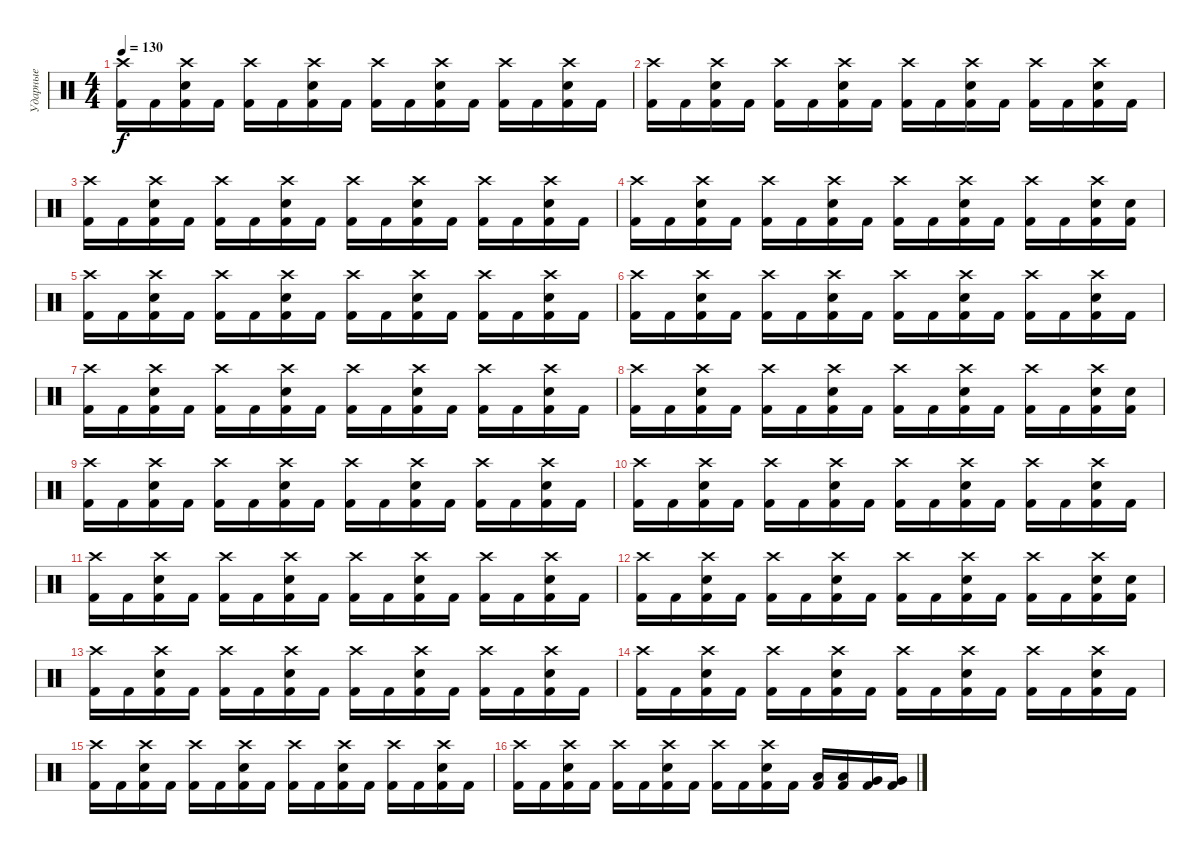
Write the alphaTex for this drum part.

\track ("Ударные" "Ударные") {instrument percussion}
\staff {score}
\articulation defaults
\ts (4 4)
\tempo 130
\clef neutral
\ks c
("Crash high (hit)" "Kick (hit) 2").16{dy f} "Kick (hit) 2".16 ("Crash high (hit)" "Electric Snare (hit)" "Kick (hit) 2").16 "Kick (hit) 2".16 ("Crash high (hit)" "Kick (hit) 2").16 "Kick (hit) 2".16 ("Crash high (hit)" "Electric Snare (hit)" "Kick (hit) 2").16 "Kick (hit) 2".16 ("Crash high (hit)" "Kick (hit) 2").16 "Kick (hit) 2".16 ("Crash high (hit)" "Electric Snare (hit)" "Kick (hit) 2").16 "Kick (hit) 2".16 ("Crash high (hit)" "Kick (hit) 2").16 "Kick (hit) 2".16 ("Crash high (hit)" "Electric Snare (hit)" "Kick (hit) 2").16 "Kick (hit) 2".16 |
("Crash high (hit)" "Kick (hit) 2").16 "Kick (hit) 2".16 ("Crash high (hit)" "Electric Snare (hit)" "Kick (hit) 2").16 "Kick (hit) 2".16 ("Crash high (hit)" "Kick (hit) 2").16 "Kick (hit) 2".16 ("Crash high (hit)" "Electric Snare (hit)" "Kick (hit) 2").16 "Kick (hit) 2".16 ("Crash high (hit)" "Kick (hit) 2").16 "Kick (hit) 2".16 ("Crash high (hit)" "Electric Snare (hit)" "Kick (hit) 2").16 "Kick (hit) 2".16 ("Crash high (hit)" "Kick (hit) 2").16 "Kick (hit) 2".16 ("Crash high (hit)" "Electric Snare (hit)" "Kick (hit) 2").16 "Kick (hit) 2".16 |
("Crash high (hit)" "Kick (hit) 2").16 "Kick (hit) 2".16 ("Crash high (hit)" "Electric Snare (hit)" "Kick (hit) 2").16 "Kick (hit) 2".16 ("Crash high (hit)" "Kick (hit) 2").16 "Kick (hit) 2".16 ("Crash high (hit)" "Electric Snare (hit)" "Kick (hit) 2").16 "Kick (hit) 2".16 ("Crash high (hit)" "Kick (hit) 2").16 "Kick (hit) 2".16 ("Crash high (hit)" "Electric Snare (hit)" "Kick (hit) 2").16 "Kick (hit) 2".16 ("Crash high (hit)" "Kick (hit) 2").16 "Kick (hit) 2".16 ("Crash high (hit)" "Electric Snare (hit)" "Kick (hit) 2").16 "Kick (hit) 2".16 |
("Crash high (hit)" "Kick (hit) 2").16 "Kick (hit) 2".16 ("Crash high (hit)" "Electric Snare (hit)" "Kick (hit) 2").16 "Kick (hit) 2".16 ("Crash high (hit)" "Kick (hit) 2").16 "Kick (hit) 2".16 ("Crash high (hit)" "Electric Snare (hit)" "Kick (hit) 2").16 "Kick (hit) 2".16 ("Crash high (hit)" "Kick (hit) 2").16 "Kick (hit) 2".16 ("Crash high (hit)" "Electric Snare (hit)" "Kick (hit) 2").16 "Kick (hit) 2".16 ("Crash high (hit)" "Kick (hit) 2").16 "Kick (hit) 2".16 ("Crash high (hit)" "Electric Snare (hit)" "Kick (hit) 2").16 ("Electric Snare (hit)" "Kick (hit) 2").16 |
("Crash high (hit)" "Kick (hit) 2").16 "Kick (hit) 2".16 ("Crash high (hit)" "Electric Snare (hit)" "Kick (hit) 2").16 "Kick (hit) 2".16 ("Crash high (hit)" "Kick (hit) 2").16 "Kick (hit) 2".16 ("Crash high (hit)" "Electric Snare (hit)" "Kick (hit) 2").16 "Kick (hit) 2".16 ("Crash high (hit)" "Kick (hit) 2").16 "Kick (hit) 2".16 ("Crash high (hit)" "Electric Snare (hit)" "Kick (hit) 2").16 "Kick (hit) 2".16 ("Crash high (hit)" "Kick (hit) 2").16 "Kick (hit) 2".16 ("Crash high (hit)" "Electric Snare (hit)" "Kick (hit) 2").16 "Kick (hit) 2".16 |
("Crash high (hit)" "Kick (hit) 2").16 "Kick (hit) 2".16 ("Crash high (hit)" "Electric Snare (hit)" "Kick (hit) 2").16 "Kick (hit) 2".16 ("Crash high (hit)" "Kick (hit) 2").16 "Kick (hit) 2".16 ("Crash high (hit)" "Electric Snare (hit)" "Kick (hit) 2").16 "Kick (hit) 2".16 ("Crash high (hit)" "Kick (hit) 2").16 "Kick (hit) 2".16 ("Crash high (hit)" "Electric Snare (hit)" "Kick (hit) 2").16 "Kick (hit) 2".16 ("Crash high (hit)" "Kick (hit) 2").16 "Kick (hit) 2".16 ("Crash high (hit)" "Electric Snare (hit)" "Kick (hit) 2").16 "Kick (hit) 2".16 |
("Crash high (hit)" "Kick (hit) 2").16 "Kick (hit) 2".16 ("Crash high (hit)" "Electric Snare (hit)" "Kick (hit) 2").16 "Kick (hit) 2".16 ("Crash high (hit)" "Kick (hit) 2").16 "Kick (hit) 2".16 ("Crash high (hit)" "Electric Snare (hit)" "Kick (hit) 2").16 "Kick (hit) 2".16 ("Crash high (hit)" "Kick (hit) 2").16 "Kick (hit) 2".16 ("Crash high (hit)" "Electric Snare (hit)" "Kick (hit) 2").16 "Kick (hit) 2".16 ("Crash high (hit)" "Kick (hit) 2").16 "Kick (hit) 2".16 ("Crash high (hit)" "Electric Snare (hit)" "Kick (hit) 2").16 "Kick (hit) 2".16 |
("Crash high (hit)" "Kick (hit) 2").16 "Kick (hit) 2".16 ("Crash high (hit)" "Electric Snare (hit)" "Kick (hit) 2").16 "Kick (hit) 2".16 ("Crash high (hit)" "Kick (hit) 2").16 "Kick (hit) 2".16 ("Crash high (hit)" "Electric Snare (hit)" "Kick (hit) 2").16 "Kick (hit) 2".16 ("Crash high (hit)" "Kick (hit) 2").16 "Kick (hit) 2".16 ("Crash high (hit)" "Electric Snare (hit)" "Kick (hit) 2").16 "Kick (hit) 2".16 ("Crash high (hit)" "Kick (hit) 2").16 "Kick (hit) 2".16 ("Crash high (hit)" "Electric Snare (hit)" "Kick (hit) 2").16 ("Electric Snare (hit)" "Kick (hit) 2").16 |
("Crash high (hit)" "Kick (hit) 2").16 "Kick (hit) 2".16 ("Crash high (hit)" "Electric Snare (hit)" "Kick (hit) 2").16 "Kick (hit) 2".16 ("Crash high (hit)" "Kick (hit) 2").16 "Kick (hit) 2".16 ("Crash high (hit)" "Electric Snare (hit)" "Kick (hit) 2").16 "Kick (hit) 2".16 ("Crash high (hit)" "Kick (hit) 2").16 "Kick (hit) 2".16 ("Crash high (hit)" "Electric Snare (hit)" "Kick (hit) 2").16 "Kick (hit) 2".16 ("Crash high (hit)" "Kick (hit) 2").16 "Kick (hit) 2".16 ("Crash high (hit)" "Electric Snare (hit)" "Kick (hit) 2").16 "Kick (hit) 2".16 |
("Crash high (hit)" "Kick (hit) 2").16 "Kick (hit) 2".16 ("Crash high (hit)" "Electric Snare (hit)" "Kick (hit) 2").16 "Kick (hit) 2".16 ("Crash high (hit)" "Kick (hit) 2").16 "Kick (hit) 2".16 ("Crash high (hit)" "Electric Snare (hit)" "Kick (hit) 2").16 "Kick (hit) 2".16 ("Crash high (hit)" "Kick (hit) 2").16 "Kick (hit) 2".16 ("Crash high (hit)" "Electric Snare (hit)" "Kick (hit) 2").16 "Kick (hit) 2".16 ("Crash high (hit)" "Kick (hit) 2").16 "Kick (hit) 2".16 ("Crash high (hit)" "Electric Snare (hit)" "Kick (hit) 2").16 "Kick (hit) 2".16 |
("Crash high (hit)" "Kick (hit) 2").16 "Kick (hit) 2".16 ("Crash high (hit)" "Electric Snare (hit)" "Kick (hit) 2").16 "Kick (hit) 2".16 ("Crash high (hit)" "Kick (hit) 2").16 "Kick (hit) 2".16 ("Crash high (hit)" "Electric Snare (hit)" "Kick (hit) 2").16 "Kick (hit) 2".16 ("Crash high (hit)" "Kick (hit) 2").16 "Kick (hit) 2".16 ("Crash high (hit)" "Electric Snare (hit)" "Kick (hit) 2").16 "Kick (hit) 2".16 ("Crash high (hit)" "Kick (hit) 2").16 "Kick (hit) 2".16 ("Crash high (hit)" "Electric Snare (hit)" "Kick (hit) 2").16 "Kick (hit) 2".16 |
("Crash high (hit)" "Kick (hit) 2").16 "Kick (hit) 2".16 ("Crash high (hit)" "Electric Snare (hit)" "Kick (hit) 2").16 "Kick (hit) 2".16 ("Crash high (hit)" "Kick (hit) 2").16 "Kick (hit) 2".16 ("Crash high (hit)" "Electric Snare (hit)" "Kick (hit) 2").16 "Kick (hit) 2".16 ("Crash high (hit)" "Kick (hit) 2").16 "Kick (hit) 2".16 ("Crash high (hit)" "Electric Snare (hit)" "Kick (hit) 2").16 "Kick (hit) 2".16 ("Crash high (hit)" "Kick (hit) 2").16 "Kick (hit) 2".16 ("Crash high (hit)" "Electric Snare (hit)" "Kick (hit) 2").16 ("Electric Snare (hit)" "Kick (hit) 2").16 |
("Crash high (hit)" "Kick (hit) 2").16 "Kick (hit) 2".16 ("Crash high (hit)" "Electric Snare (hit)" "Kick (hit) 2").16 "Kick (hit) 2".16 ("Crash high (hit)" "Kick (hit) 2").16 "Kick (hit) 2".16 ("Crash high (hit)" "Electric Snare (hit)" "Kick (hit) 2").16 "Kick (hit) 2".16 ("Crash high (hit)" "Kick (hit) 2").16 "Kick (hit) 2".16 ("Crash high (hit)" "Electric Snare (hit)" "Kick (hit) 2").16 "Kick (hit) 2".16 ("Crash high (hit)" "Kick (hit) 2").16 "Kick (hit) 2".16 ("Crash high (hit)" "Electric Snare (hit)" "Kick (hit) 2").16 "Kick (hit) 2".16 |
("Crash high (hit)" "Kick (hit) 2").16 "Kick (hit) 2".16 ("Crash high (hit)" "Electric Snare (hit)" "Kick (hit) 2").16 "Kick (hit) 2".16 ("Crash high (hit)" "Kick (hit) 2").16 "Kick (hit) 2".16 ("Crash high (hit)" "Electric Snare (hit)" "Kick (hit) 2").16 "Kick (hit) 2".16 ("Crash high (hit)" "Kick (hit) 2").16 "Kick (hit) 2".16 ("Crash high (hit)" "Electric Snare (hit)" "Kick (hit) 2").16 "Kick (hit) 2".16 ("Crash high (hit)" "Kick (hit) 2").16 "Kick (hit) 2".16 ("Crash high (hit)" "Electric Snare (hit)" "Kick (hit) 2").16 "Kick (hit) 2".16 |
("Crash high (hit)" "Kick (hit) 2").16 "Kick (hit) 2".16 ("Crash high (hit)" "Electric Snare (hit)" "Kick (hit) 2").16 "Kick (hit) 2".16 ("Crash high (hit)" "Kick (hit) 2").16 "Kick (hit) 2".16 ("Crash high (hit)" "Electric Snare (hit)" "Kick (hit) 2").16 "Kick (hit) 2".16 ("Crash high (hit)" "Kick (hit) 2").16 "Kick (hit) 2".16 ("Crash high (hit)" "Electric Snare (hit)" "Kick (hit) 2").16 "Kick (hit) 2".16 ("Crash high (hit)" "Kick (hit) 2").16 "Kick (hit) 2".16 ("Crash high (hit)" "Electric Snare (hit)" "Kick (hit) 2").16 "Kick (hit) 2".16 |
("Crash high (hit)" "Kick (hit) 2").16 "Kick (hit) 2".16 ("Crash high (hit)" "Electric Snare (hit)" "Kick (hit) 2").16 "Kick (hit) 2".16 ("Crash high (hit)" "Kick (hit) 2").16 "Kick (hit) 2".16 ("Crash high (hit)" "Electric Snare (hit)" "Kick (hit) 2").16 "Kick (hit) 2".16 ("Crash high (hit)" "Kick (hit) 2").16 "Kick (hit) 2".16 ("Crash high (hit)" "Electric Snare (hit)" "Kick (hit) 2").16 "Kick (hit) 2".16 ("Low Tom (hit)" "Kick (hit) 2").16 ("Low Tom (hit)" "Kick (hit) 2").16 ("Very Low Tom (hit)" "Kick (hit) 2").16 ("Very Low Tom (hit)" "Kick (hit) 2").16
